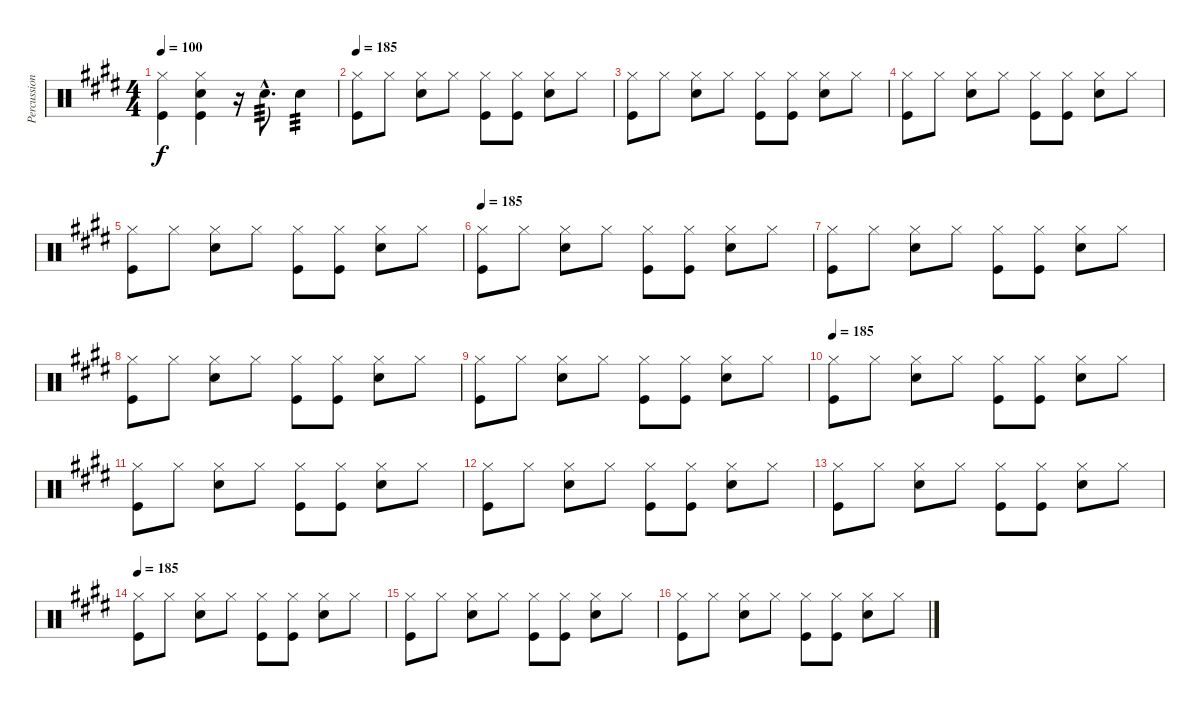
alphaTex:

\track ("Percussion" "Percussion") {instrument percussion}
\staff {score}
\articulation defaults
\ts (4 4)
\tempo 100
\clef neutral
\ks e
("Hi-Hat (closed)" "Kick (hit)").4{dy f} ("Hi-Hat (closed)" "Snare (hit) 2" "Kick (hit)").4 r.16 "Snare (hit) 2"{hac}.8{d tp 3} "Snare (hit) 2".4{tp 3} |
\tempo 185
("Hi-Hat (closed)" "Kick (hit)").8 "Hi-Hat (closed)".8 ("Hi-Hat (closed)" "Snare (hit) 2").8 "Hi-Hat (closed)".8 ("Hi-Hat (closed)" "Kick (hit)").8 ("Hi-Hat (closed)" "Kick (hit)").8 ("Hi-Hat (closed)" "Snare (hit) 2").8 "Hi-Hat (closed)".8 |
("Hi-Hat (closed)" "Kick (hit)").8 "Hi-Hat (closed)".8 ("Hi-Hat (closed)" "Snare (hit) 2").8 "Hi-Hat (closed)".8 ("Hi-Hat (closed)" "Kick (hit)").8 ("Hi-Hat (closed)" "Kick (hit)").8 ("Hi-Hat (closed)" "Snare (hit) 2").8 "Hi-Hat (closed)".8 |
("Hi-Hat (closed)" "Kick (hit)").8 "Hi-Hat (closed)".8 ("Hi-Hat (closed)" "Snare (hit) 2").8 "Hi-Hat (closed)".8 ("Hi-Hat (closed)" "Kick (hit)").8 ("Hi-Hat (closed)" "Kick (hit)").8 ("Hi-Hat (closed)" "Snare (hit) 2").8 "Hi-Hat (closed)".8 |
("Hi-Hat (closed)" "Kick (hit)").8 "Hi-Hat (closed)".8 ("Hi-Hat (closed)" "Snare (hit) 2").8 "Hi-Hat (closed)".8 ("Hi-Hat (closed)" "Kick (hit)").8 ("Hi-Hat (closed)" "Kick (hit)").8 ("Hi-Hat (closed)" "Snare (hit) 2").8 "Hi-Hat (closed)".8 |
\tempo 185
("Hi-Hat (closed)" "Kick (hit)").8 "Hi-Hat (closed)".8 ("Hi-Hat (closed)" "Snare (hit) 2").8 "Hi-Hat (closed)".8 ("Hi-Hat (closed)" "Kick (hit)").8 ("Hi-Hat (closed)" "Kick (hit)").8 ("Hi-Hat (closed)" "Snare (hit) 2").8 "Hi-Hat (closed)".8 |
("Hi-Hat (closed)" "Kick (hit)").8 "Hi-Hat (closed)".8 ("Hi-Hat (closed)" "Snare (hit) 2").8 "Hi-Hat (closed)".8 ("Hi-Hat (closed)" "Kick (hit)").8 ("Hi-Hat (closed)" "Kick (hit)").8 ("Hi-Hat (closed)" "Snare (hit) 2").8 "Hi-Hat (closed)".8 |
("Hi-Hat (closed)" "Kick (hit)").8 "Hi-Hat (closed)".8 ("Hi-Hat (closed)" "Snare (hit) 2").8 "Hi-Hat (closed)".8 ("Hi-Hat (closed)" "Kick (hit)").8 ("Hi-Hat (closed)" "Kick (hit)").8 ("Hi-Hat (closed)" "Snare (hit) 2").8 "Hi-Hat (closed)".8 |
("Hi-Hat (closed)" "Kick (hit)").8 "Hi-Hat (closed)".8 ("Hi-Hat (closed)" "Snare (hit) 2").8 "Hi-Hat (closed)".8 ("Hi-Hat (closed)" "Kick (hit)").8 ("Hi-Hat (closed)" "Kick (hit)").8 ("Hi-Hat (closed)" "Snare (hit) 2").8 "Hi-Hat (closed)".8 |
\tempo 185
("Hi-Hat (closed)" "Kick (hit)").8 "Hi-Hat (closed)".8 ("Hi-Hat (closed)" "Snare (hit) 2").8 "Hi-Hat (closed)".8 ("Hi-Hat (closed)" "Kick (hit)").8 ("Hi-Hat (closed)" "Kick (hit)").8 ("Hi-Hat (closed)" "Snare (hit) 2").8 "Hi-Hat (closed)".8 |
("Hi-Hat (closed)" "Kick (hit)").8 "Hi-Hat (closed)".8 ("Hi-Hat (closed)" "Snare (hit) 2").8 "Hi-Hat (closed)".8 ("Hi-Hat (closed)" "Kick (hit)").8 ("Hi-Hat (closed)" "Kick (hit)").8 ("Hi-Hat (closed)" "Snare (hit) 2").8 "Hi-Hat (closed)".8 |
("Hi-Hat (closed)" "Kick (hit)").8 "Hi-Hat (closed)".8 ("Hi-Hat (closed)" "Snare (hit) 2").8 "Hi-Hat (closed)".8 ("Hi-Hat (closed)" "Kick (hit)").8 ("Hi-Hat (closed)" "Kick (hit)").8 ("Hi-Hat (closed)" "Snare (hit) 2").8 "Hi-Hat (closed)".8 |
("Hi-Hat (closed)" "Kick (hit)").8 "Hi-Hat (closed)".8 ("Hi-Hat (closed)" "Snare (hit) 2").8 "Hi-Hat (closed)".8 ("Hi-Hat (closed)" "Kick (hit)").8 ("Hi-Hat (closed)" "Kick (hit)").8 ("Hi-Hat (closed)" "Snare (hit) 2").8 "Hi-Hat (closed)".8 |
\tempo 185
("Hi-Hat (closed)" "Kick (hit)").8 "Hi-Hat (closed)".8 ("Hi-Hat (closed)" "Snare (hit) 2").8 "Hi-Hat (closed)".8 ("Hi-Hat (closed)" "Kick (hit)").8 ("Hi-Hat (closed)" "Kick (hit)").8 ("Hi-Hat (closed)" "Snare (hit) 2").8 "Hi-Hat (closed)".8 |
("Hi-Hat (closed)" "Kick (hit)").8 "Hi-Hat (closed)".8 ("Hi-Hat (closed)" "Snare (hit) 2").8 "Hi-Hat (closed)".8 ("Hi-Hat (closed)" "Kick (hit)").8 ("Hi-Hat (closed)" "Kick (hit)").8 ("Hi-Hat (closed)" "Snare (hit) 2").8 "Hi-Hat (closed)".8 |
("Hi-Hat (closed)" "Kick (hit)").8 "Hi-Hat (closed)".8 ("Hi-Hat (closed)" "Snare (hit) 2").8 "Hi-Hat (closed)".8 ("Hi-Hat (closed)" "Kick (hit)").8 ("Hi-Hat (closed)" "Kick (hit)").8 ("Hi-Hat (closed)" "Snare (hit) 2").8 "Hi-Hat (closed)".8
